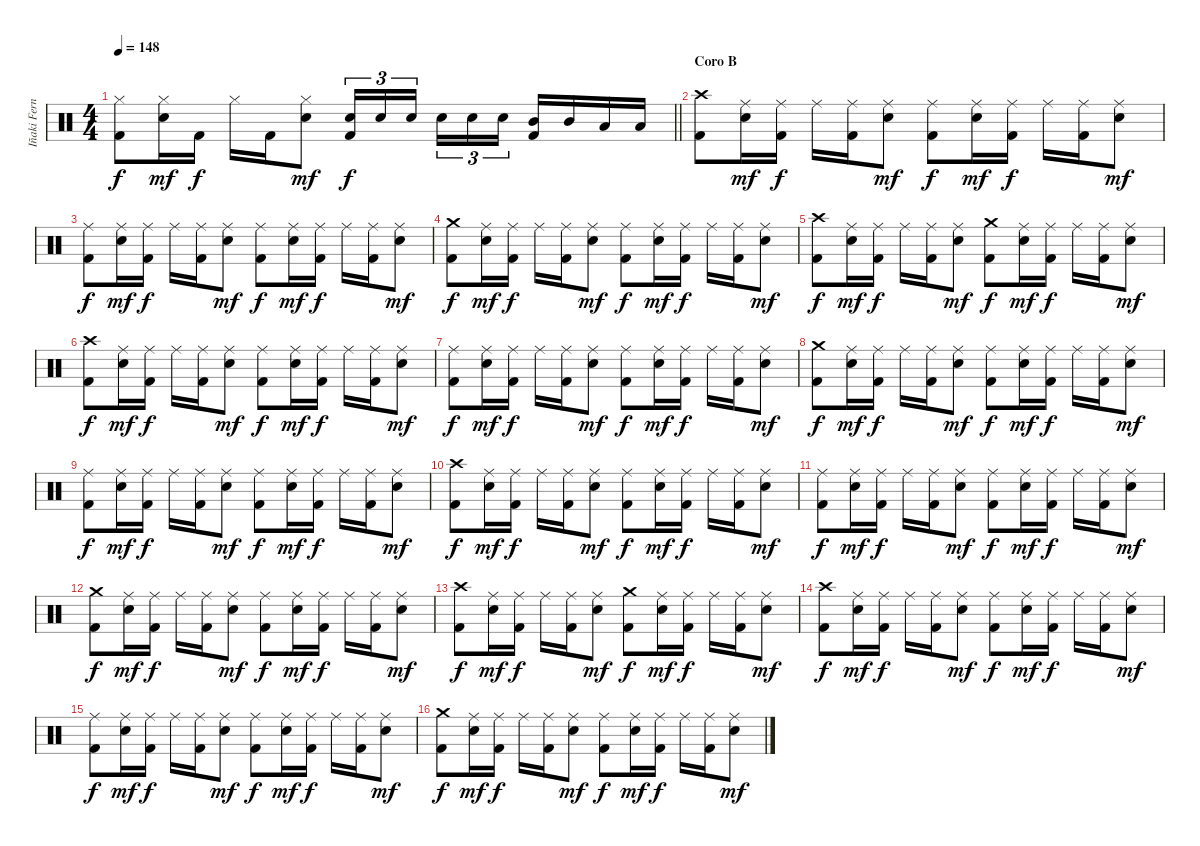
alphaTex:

\track ("Iñaki Fernández" "Iñaki Fern") {instrument percussion}
\staff {score}
\articulation defaults
\ts (4 4)
\tempo 148
\clef neutral
\barLineRight lightlight
\ks c
("Hi-Hat (closed)" "Kick (hit) 2").8{dy f} ("Hi-Hat (closed)" "Snare (hit) 2").16{dy mf} "Kick (hit) 2".16{dy f} "Hi-Hat (closed)".16 "Kick (hit) 2".16 ("Hi-Hat (closed)" "Snare (hit) 2").8{dy mf} ("Snare (hit) 2" "Kick (hit) 2").16{tu (3 2) dy f} "Snare (hit) 2".16{tu (3 2)} "Snare (hit) 2".16{tu (3 2) beam splitsecondary} "Snare (hit) 2".16{tu (3 2)} "Snare (hit) 2".16{tu (3 2)} "Snare (hit) 2".16{tu (3 2)} ("Mid Tom (hit)" "Kick (hit) 2").16 "Mid Tom (hit)".16 "Low Tom (hit)".16 "Low Tom (hit)".16 |
\section ("" "Coro B")
("Crash high (hit)" "Kick (hit) 2").8 ("Ride (middle)" "Snare (hit) 2").16{dy mf} ("Ride (middle)" "Kick (hit) 2").16{dy f} "Ride (middle)".16 ("Ride (middle)" "Kick (hit) 2").16 ("Ride (middle)" "Snare (hit) 2").8{dy mf} ("Ride (middle)" "Kick (hit) 2").8{dy f} ("Ride (middle)" "Snare (hit) 2").16{dy mf} ("Ride (middle)" "Kick (hit) 2").16{dy f} "Ride (middle)".16 ("Ride (middle)" "Kick (hit) 2").16 ("Ride (middle)" "Snare (hit) 2").8{dy mf} |
("Ride (middle)" "Kick (hit) 2").8{dy f} ("Ride (middle)" "Snare (hit) 2").16{dy mf} ("Ride (middle)" "Kick (hit) 2").16{dy f} "Ride (middle)".16 ("Ride (middle)" "Kick (hit) 2").16 ("Ride (middle)" "Snare (hit) 2").8{dy mf} ("Ride (middle)" "Kick (hit) 2").8{dy f} ("Ride (middle)" "Snare (hit) 2").16{dy mf} ("Ride (middle)" "Kick (hit) 2").16{dy f} "Ride (middle)".16 ("Ride (middle)" "Kick (hit) 2").16 ("Ride (middle)" "Snare (hit) 2").8{dy mf} |
("Crash medium (hit)" "Kick (hit) 2").8{dy f} ("Ride (middle)" "Snare (hit) 2").16{dy mf} ("Ride (middle)" "Kick (hit) 2").16{dy f} "Ride (middle)".16 ("Ride (middle)" "Kick (hit) 2").16 ("Ride (middle)" "Snare (hit) 2").8{dy mf} ("Ride (middle)" "Kick (hit) 2").8{dy f} ("Ride (middle)" "Snare (hit) 2").16{dy mf} ("Ride (middle)" "Kick (hit) 2").16{dy f} "Ride (middle)".16 ("Ride (middle)" "Kick (hit) 2").16 ("Ride (middle)" "Snare (hit) 2").8{dy mf} |
("Crash high (hit)" "Kick (hit) 2").8{dy f} ("Ride (middle)" "Snare (hit) 2").16{dy mf} ("Ride (middle)" "Kick (hit) 2").16{dy f} "Ride (middle)".16 ("Ride (middle)" "Kick (hit) 2").16 ("Ride (middle)" "Snare (hit) 2").8{dy mf} ("Crash medium (hit)" "Kick (hit) 2").8{dy f} ("Ride (middle)" "Snare (hit) 2").16{dy mf} ("Ride (middle)" "Kick (hit) 2").16{dy f} "Ride (middle)".16 ("Ride (middle)" "Kick (hit) 2").16 ("Ride (middle)" "Snare (hit) 2").8{dy mf} |
("Crash high (hit)" "Kick (hit) 2").8{dy f} ("Ride (middle)" "Snare (hit) 2").16{dy mf} ("Ride (middle)" "Kick (hit) 2").16{dy f} "Ride (middle)".16 ("Ride (middle)" "Kick (hit) 2").16 ("Ride (middle)" "Snare (hit) 2").8{dy mf} ("Ride (middle)" "Kick (hit) 2").8{dy f} ("Ride (middle)" "Snare (hit) 2").16{dy mf} ("Ride (middle)" "Kick (hit) 2").16{dy f} "Ride (middle)".16 ("Ride (middle)" "Kick (hit) 2").16 ("Ride (middle)" "Snare (hit) 2").8{dy mf} |
("Ride (middle)" "Kick (hit) 2").8{dy f} ("Ride (middle)" "Snare (hit) 2").16{dy mf} ("Ride (middle)" "Kick (hit) 2").16{dy f} "Ride (middle)".16 ("Ride (middle)" "Kick (hit) 2").16 ("Ride (middle)" "Snare (hit) 2").8{dy mf} ("Ride (middle)" "Kick (hit) 2").8{dy f} ("Ride (middle)" "Snare (hit) 2").16{dy mf} ("Ride (middle)" "Kick (hit) 2").16{dy f} "Ride (middle)".16 ("Ride (middle)" "Kick (hit) 2").16 ("Ride (middle)" "Snare (hit) 2").8{dy mf} |
("Crash medium (hit)" "Kick (hit) 2").8{dy f} ("Ride (middle)" "Snare (hit) 2").16{dy mf} ("Ride (middle)" "Kick (hit) 2").16{dy f} "Ride (middle)".16 ("Ride (middle)" "Kick (hit) 2").16 ("Ride (middle)" "Snare (hit) 2").8{dy mf} ("Ride (middle)" "Kick (hit) 2").8{dy f} ("Ride (middle)" "Snare (hit) 2").16{dy mf} ("Ride (middle)" "Kick (hit) 2").16{dy f} "Ride (middle)".16 ("Ride (middle)" "Kick (hit) 2").16 ("Ride (middle)" "Snare (hit) 2").8{dy mf} |
("Ride (middle)" "Kick (hit) 2").8{dy f} ("Ride (middle)" "Snare (hit) 2").16{dy mf} ("Ride (middle)" "Kick (hit) 2").16{dy f} "Ride (middle)".16 ("Ride (middle)" "Kick (hit) 2").16 ("Ride (middle)" "Snare (hit) 2").8{dy mf} ("Ride (middle)" "Kick (hit) 2").8{dy f} ("Ride (middle)" "Snare (hit) 2").16{dy mf} ("Ride (middle)" "Kick (hit) 2").16{dy f} "Ride (middle)".16 ("Ride (middle)" "Kick (hit) 2").16 ("Ride (middle)" "Snare (hit) 2").8{dy mf} |
("Crash high (hit)" "Kick (hit) 2").8{dy f} ("Ride (middle)" "Snare (hit) 2").16{dy mf} ("Ride (middle)" "Kick (hit) 2").16{dy f} "Ride (middle)".16 ("Ride (middle)" "Kick (hit) 2").16 ("Ride (middle)" "Snare (hit) 2").8{dy mf} ("Ride (middle)" "Kick (hit) 2").8{dy f} ("Ride (middle)" "Snare (hit) 2").16{dy mf} ("Ride (middle)" "Kick (hit) 2").16{dy f} "Ride (middle)".16 ("Ride (middle)" "Kick (hit) 2").16 ("Ride (middle)" "Snare (hit) 2").8{dy mf} |
("Ride (middle)" "Kick (hit) 2").8{dy f} ("Ride (middle)" "Snare (hit) 2").16{dy mf} ("Ride (middle)" "Kick (hit) 2").16{dy f} "Ride (middle)".16 ("Ride (middle)" "Kick (hit) 2").16 ("Ride (middle)" "Snare (hit) 2").8{dy mf} ("Ride (middle)" "Kick (hit) 2").8{dy f} ("Ride (middle)" "Snare (hit) 2").16{dy mf} ("Ride (middle)" "Kick (hit) 2").16{dy f} "Ride (middle)".16 ("Ride (middle)" "Kick (hit) 2").16 ("Ride (middle)" "Snare (hit) 2").8{dy mf} |
("Crash medium (hit)" "Kick (hit) 2").8{dy f} ("Ride (middle)" "Snare (hit) 2").16{dy mf} ("Ride (middle)" "Kick (hit) 2").16{dy f} "Ride (middle)".16 ("Ride (middle)" "Kick (hit) 2").16 ("Ride (middle)" "Snare (hit) 2").8{dy mf} ("Ride (middle)" "Kick (hit) 2").8{dy f} ("Ride (middle)" "Snare (hit) 2").16{dy mf} ("Ride (middle)" "Kick (hit) 2").16{dy f} "Ride (middle)".16 ("Ride (middle)" "Kick (hit) 2").16 ("Ride (middle)" "Snare (hit) 2").8{dy mf} |
("Crash high (hit)" "Kick (hit) 2").8{dy f} ("Ride (middle)" "Snare (hit) 2").16{dy mf} ("Ride (middle)" "Kick (hit) 2").16{dy f} "Ride (middle)".16 ("Ride (middle)" "Kick (hit) 2").16 ("Ride (middle)" "Snare (hit) 2").8{dy mf} ("Crash medium (hit)" "Kick (hit) 2").8{dy f} ("Ride (middle)" "Snare (hit) 2").16{dy mf} ("Ride (middle)" "Kick (hit) 2").16{dy f} "Ride (middle)".16 ("Ride (middle)" "Kick (hit) 2").16 ("Ride (middle)" "Snare (hit) 2").8{dy mf} |
("Crash high (hit)" "Kick (hit) 2").8{dy f} ("Ride (middle)" "Snare (hit) 2").16{dy mf} ("Ride (middle)" "Kick (hit) 2").16{dy f} "Ride (middle)".16 ("Ride (middle)" "Kick (hit) 2").16 ("Ride (middle)" "Snare (hit) 2").8{dy mf} ("Ride (middle)" "Kick (hit) 2").8{dy f} ("Ride (middle)" "Snare (hit) 2").16{dy mf} ("Ride (middle)" "Kick (hit) 2").16{dy f} "Ride (middle)".16 ("Ride (middle)" "Kick (hit) 2").16 ("Ride (middle)" "Snare (hit) 2").8{dy mf} |
("Ride (middle)" "Kick (hit) 2").8{dy f} ("Ride (middle)" "Snare (hit) 2").16{dy mf} ("Ride (middle)" "Kick (hit) 2").16{dy f} "Ride (middle)".16 ("Ride (middle)" "Kick (hit) 2").16 ("Ride (middle)" "Snare (hit) 2").8{dy mf} ("Ride (middle)" "Kick (hit) 2").8{dy f} ("Ride (middle)" "Snare (hit) 2").16{dy mf} ("Ride (middle)" "Kick (hit) 2").16{dy f} "Ride (middle)".16 ("Ride (middle)" "Kick (hit) 2").16 ("Ride (middle)" "Snare (hit) 2").8{dy mf} |
("Crash medium (hit)" "Kick (hit) 2").8{dy f} ("Ride (middle)" "Snare (hit) 2").16{dy mf} ("Ride (middle)" "Kick (hit) 2").16{dy f} "Ride (middle)".16 ("Ride (middle)" "Kick (hit) 2").16 ("Ride (middle)" "Snare (hit) 2").8{dy mf} ("Ride (middle)" "Kick (hit) 2").8{dy f} ("Ride (middle)" "Snare (hit) 2").16{dy mf} ("Ride (middle)" "Kick (hit) 2").16{dy f} "Ride (middle)".16 ("Ride (middle)" "Kick (hit) 2").16 ("Ride (middle)" "Snare (hit) 2").8{dy mf}
